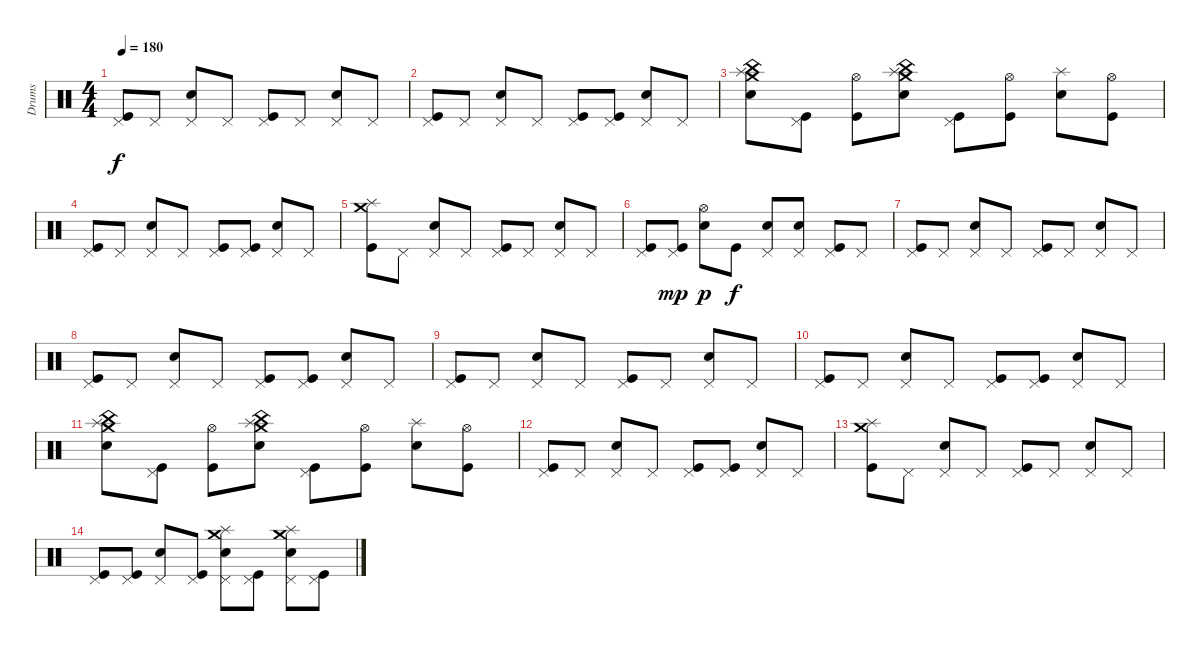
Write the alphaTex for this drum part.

\track ("Drums" "Drums") {instrument percussion}
\staff {score}
\articulation defaults
\ts (4 4)
\tempo 180
\clef neutral
\ks c
("Pedal Hi-Hat (hit)" "Kick (hit)").8{dy f} "Pedal Hi-Hat (hit)".8 ("Pedal Hi-Hat (hit)" "Snare (hit) 2").8 "Pedal Hi-Hat (hit)".8 ("Pedal Hi-Hat (hit)" "Kick (hit)").8 "Pedal Hi-Hat (hit)".8 ("Pedal Hi-Hat (hit)" "Snare (hit) 2").8 "Pedal Hi-Hat (hit)".8 |
("Pedal Hi-Hat (hit)" "Kick (hit)").8 "Pedal Hi-Hat (hit)".8 ("Pedal Hi-Hat (hit)" "Snare (hit) 2").8 "Pedal Hi-Hat (hit)".8 ("Pedal Hi-Hat (hit)" "Kick (hit)").8 ("Pedal Hi-Hat (hit)" "Kick (hit)").8 ("Pedal Hi-Hat (hit)" "Snare (hit) 2").8 "Pedal Hi-Hat (hit)".8 |
("Splash (hit)" "China (hit)" "Crash medium (hit)" "Snare (hit) 2").8 ("Pedal Hi-Hat (hit)" "Kick (hit)").8 ("Hi-Hat (open)" "Kick (hit)").8 ("China (hit)" "Splash (hit)" "Crash medium (hit)" "Snare (hit) 2").8 ("Pedal Hi-Hat (hit)" "Kick (hit)").8 ("Hi-Hat (open)" "Kick (hit)").8 ("Splash (hit)" "Snare (hit) 2").8 ("Hi-Hat (open)" "Kick (hit)").8 |
("Pedal Hi-Hat (hit)" "Kick (hit)").8 "Pedal Hi-Hat (hit)".8 ("Pedal Hi-Hat (hit)" "Snare (hit) 2").8 "Pedal Hi-Hat (hit)".8 ("Pedal Hi-Hat (hit)" "Kick (hit)").8 ("Pedal Hi-Hat (hit)" "Kick (hit)").8 ("Pedal Hi-Hat (hit)" "Snare (hit) 2").8 "Pedal Hi-Hat (hit)".8 |
("Splash (hit)" "Crash medium (hit)" "Kick (hit)").8 "Pedal Hi-Hat (hit)".8 ("Pedal Hi-Hat (hit)" "Snare (hit) 2").8 "Pedal Hi-Hat (hit)".8 ("Pedal Hi-Hat (hit)" "Kick (hit)").8 "Pedal Hi-Hat (hit)".8 ("Pedal Hi-Hat (hit)" "Snare (hit) 2").8 "Pedal Hi-Hat (hit)".8 |
("Pedal Hi-Hat (hit)" "Kick (hit)").8 ("Pedal Hi-Hat (hit)" "Kick (hit)").8{dy mp} ("Hi-Hat (open)" "Snare (hit) 2").8{dy p} "Kick (hit)".8{dy f} ("Pedal Hi-Hat (hit)" "Snare (hit) 2").8 ("Pedal Hi-Hat (hit)" "Snare (hit) 2").8 ("Pedal Hi-Hat (hit)" "Kick (hit)").8 "Pedal Hi-Hat (hit)".8 |
("Pedal Hi-Hat (hit)" "Kick (hit)").8 "Pedal Hi-Hat (hit)".8 ("Pedal Hi-Hat (hit)" "Snare (hit) 2").8 "Pedal Hi-Hat (hit)".8 ("Pedal Hi-Hat (hit)" "Kick (hit)").8 "Pedal Hi-Hat (hit)".8 ("Pedal Hi-Hat (hit)" "Snare (hit) 2").8 "Pedal Hi-Hat (hit)".8 |
("Pedal Hi-Hat (hit)" "Kick (hit)").8 "Pedal Hi-Hat (hit)".8 ("Pedal Hi-Hat (hit)" "Snare (hit) 2").8 "Pedal Hi-Hat (hit)".8 ("Pedal Hi-Hat (hit)" "Kick (hit)").8 ("Pedal Hi-Hat (hit)" "Kick (hit)").8 ("Pedal Hi-Hat (hit)" "Snare (hit) 2").8 "Pedal Hi-Hat (hit)".8 |
("Pedal Hi-Hat (hit)" "Kick (hit)").8 "Pedal Hi-Hat (hit)".8 ("Pedal Hi-Hat (hit)" "Snare (hit) 2").8 "Pedal Hi-Hat (hit)".8 ("Pedal Hi-Hat (hit)" "Kick (hit)").8 "Pedal Hi-Hat (hit)".8 ("Pedal Hi-Hat (hit)" "Snare (hit) 2").8 "Pedal Hi-Hat (hit)".8 |
("Pedal Hi-Hat (hit)" "Kick (hit)").8 "Pedal Hi-Hat (hit)".8 ("Pedal Hi-Hat (hit)" "Snare (hit) 2").8 "Pedal Hi-Hat (hit)".8 ("Pedal Hi-Hat (hit)" "Kick (hit)").8 ("Pedal Hi-Hat (hit)" "Kick (hit)").8 ("Pedal Hi-Hat (hit)" "Snare (hit) 2").8 "Pedal Hi-Hat (hit)".8 |
("Splash (hit)" "China (hit)" "Crash medium (hit)" "Snare (hit) 2").8 ("Pedal Hi-Hat (hit)" "Kick (hit)").8 ("Hi-Hat (open)" "Kick (hit)").8 ("China (hit)" "Splash (hit)" "Crash medium (hit)" "Snare (hit) 2").8 ("Pedal Hi-Hat (hit)" "Kick (hit)").8 ("Hi-Hat (open)" "Kick (hit)").8 ("Splash (hit)" "Snare (hit) 2").8 ("Hi-Hat (open)" "Kick (hit)").8 |
("Pedal Hi-Hat (hit)" "Kick (hit)").8 "Pedal Hi-Hat (hit)".8 ("Pedal Hi-Hat (hit)" "Snare (hit) 2").8 "Pedal Hi-Hat (hit)".8 ("Pedal Hi-Hat (hit)" "Kick (hit)").8 ("Pedal Hi-Hat (hit)" "Kick (hit)").8 ("Pedal Hi-Hat (hit)" "Snare (hit) 2").8 "Pedal Hi-Hat (hit)".8 |
("Splash (hit)" "Crash medium (hit)" "Kick (hit)").8 "Pedal Hi-Hat (hit)".8 ("Pedal Hi-Hat (hit)" "Snare (hit) 2").8 "Pedal Hi-Hat (hit)".8 ("Pedal Hi-Hat (hit)" "Kick (hit)").8 "Pedal Hi-Hat (hit)".8 ("Pedal Hi-Hat (hit)" "Snare (hit) 2").8 "Pedal Hi-Hat (hit)".8 |
("Pedal Hi-Hat (hit)" "Kick (hit)").8 ("Pedal Hi-Hat (hit)" "Kick (hit)").8 ("Pedal Hi-Hat (hit)" "Snare (hit) 2").8 ("Pedal Hi-Hat (hit)" "Kick (hit)").8 ("Pedal Hi-Hat (hit)" "Crash medium (hit)" "Splash (hit)" "Snare (hit) 2").8 ("Pedal Hi-Hat (hit)" "Kick (hit)").8 ("Pedal Hi-Hat (hit)" "Crash medium (hit)" "Splash (hit)" "Snare (hit) 2").8 ("Pedal Hi-Hat (hit)" "Kick (hit)").8
